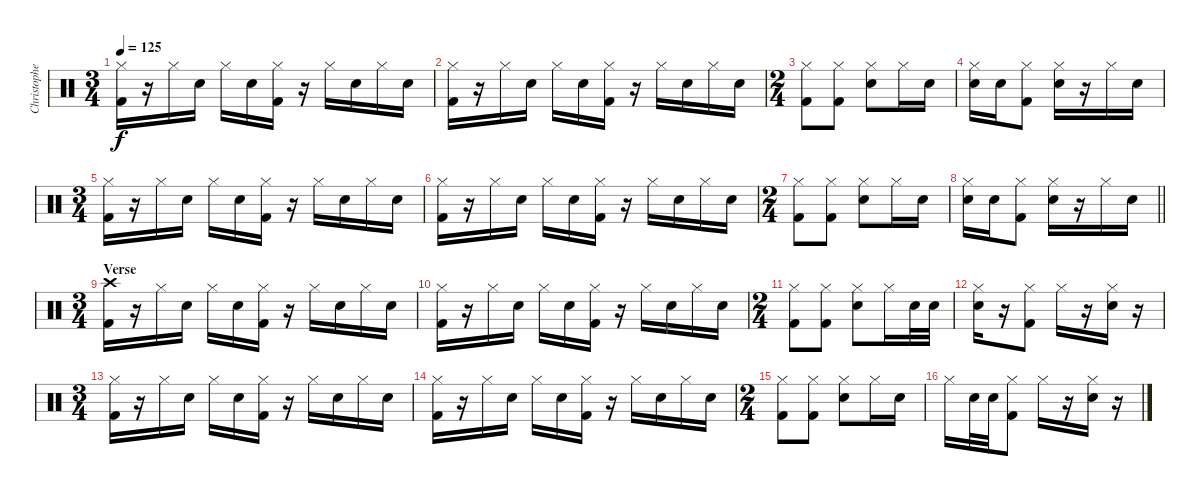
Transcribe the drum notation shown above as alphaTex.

\track ("Christopher - Drums" "Christophe") {instrument percussion}
\staff {score}
\articulation defaults
\ts (3 4)
\tempo 125
\clef neutral
\ks c
("Hi-Hat (closed)" "Kick (hit) 2").16{dy f} r.16 "Hi-Hat (closed)".16 "Electric Snare (hit)".16 "Hi-Hat (closed)".16 "Electric Snare (hit)".16 ("Hi-Hat (closed)" "Kick (hit) 2").16 r.16 "Hi-Hat (closed)".16 "Electric Snare (hit)".16 "Hi-Hat (closed)".16 "Electric Snare (hit)".16 |
("Hi-Hat (closed)" "Kick (hit) 2").16 r.16 "Hi-Hat (closed)".16 "Electric Snare (hit)".16 "Hi-Hat (closed)".16 "Electric Snare (hit)".16 ("Hi-Hat (closed)" "Kick (hit) 2").16 r.16 "Hi-Hat (closed)".16 "Electric Snare (hit)".16 "Hi-Hat (closed)".16 "Electric Snare (hit)".16 |
\ts (2 4)
("Hi-Hat (closed)" "Kick (hit) 2").8 ("Hi-Hat (closed)" "Kick (hit) 2").8 ("Hi-Hat (closed)" "Electric Snare (hit)").8 "Hi-Hat (closed)".16 "Electric Snare (hit)".16 |
("Hi-Hat (closed)" "Electric Snare (hit)").16 "Electric Snare (hit)".16 ("Hi-Hat (closed)" "Kick (hit) 2").8 ("Hi-Hat (closed)" "Electric Snare (hit)").16 r.16 "Hi-Hat (closed)".16 "Electric Snare (hit)".16 |
\ts (3 4)
("Hi-Hat (closed)" "Kick (hit) 2").16 r.16 "Hi-Hat (closed)".16 "Electric Snare (hit)".16 "Hi-Hat (closed)".16 "Electric Snare (hit)".16 ("Hi-Hat (closed)" "Kick (hit) 2").16 r.16 "Hi-Hat (closed)".16 "Electric Snare (hit)".16 "Hi-Hat (closed)".16 "Electric Snare (hit)".16 |
("Hi-Hat (closed)" "Kick (hit) 2").16 r.16 "Hi-Hat (closed)".16 "Electric Snare (hit)".16 "Hi-Hat (closed)".16 "Electric Snare (hit)".16 ("Hi-Hat (closed)" "Kick (hit) 2").16 r.16 "Hi-Hat (closed)".16 "Electric Snare (hit)".16 "Hi-Hat (closed)".16 "Electric Snare (hit)".16 |
\ts (2 4)
("Hi-Hat (closed)" "Kick (hit) 2").8 ("Hi-Hat (closed)" "Kick (hit) 2").8 ("Hi-Hat (closed)" "Electric Snare (hit)").8 "Hi-Hat (closed)".16 "Electric Snare (hit)".16 |
\barLineRight lightlight
("Hi-Hat (closed)" "Electric Snare (hit)").16 "Electric Snare (hit)".16 ("Hi-Hat (closed)" "Kick (hit) 2").8 ("Hi-Hat (closed)" "Electric Snare (hit)").16 r.16 "Hi-Hat (closed)".16 "Electric Snare (hit)".16 |
\ts (3 4)
\section ("" "Verse")
("Crash high (hit)" "Kick (hit) 2").16 r.16 "Hi-Hat (closed)".16 "Electric Snare (hit)".16 "Hi-Hat (closed)".16 "Electric Snare (hit)".16 ("Hi-Hat (closed)" "Kick (hit) 2").16 r.16 "Hi-Hat (closed)".16 "Electric Snare (hit)".16 "Hi-Hat (closed)".16 "Electric Snare (hit)".16 |
("Hi-Hat (closed)" "Kick (hit) 2").16 r.16 "Hi-Hat (closed)".16 "Electric Snare (hit)".16 "Hi-Hat (closed)".16 "Electric Snare (hit)".16 ("Hi-Hat (closed)" "Kick (hit) 2").16 r.16 "Hi-Hat (closed)".16 "Electric Snare (hit)".16 "Hi-Hat (closed)".16 "Electric Snare (hit)".16 |
\ts (2 4)
("Hi-Hat (closed)" "Kick (hit) 2").8 ("Hi-Hat (closed)" "Kick (hit) 2").8 ("Hi-Hat (closed)" "Electric Snare (hit)").8 "Hi-Hat (closed)".16 "Electric Snare (hit)".32 "Electric Snare (hit)".32 |
("Hi-Hat (closed)" "Electric Snare (hit)").16 r.16 ("Hi-Hat (closed)" "Kick (hit) 2").8 "Hi-Hat (closed)".16 r.16 ("Hi-Hat (closed)" "Electric Snare (hit)").16 r.16 |
\ts (3 4)
("Hi-Hat (closed)" "Kick (hit) 2").16 r.16 "Hi-Hat (closed)".16 "Electric Snare (hit)".16 "Hi-Hat (closed)".16 "Electric Snare (hit)".16 ("Hi-Hat (closed)" "Kick (hit) 2").16 r.16 "Hi-Hat (closed)".16 "Electric Snare (hit)".16 "Hi-Hat (closed)".16 "Electric Snare (hit)".16 |
("Hi-Hat (closed)" "Kick (hit) 2").16 r.16 "Hi-Hat (closed)".16 "Electric Snare (hit)".16 "Hi-Hat (closed)".16 "Electric Snare (hit)".16 ("Hi-Hat (closed)" "Kick (hit) 2").16 r.16 "Hi-Hat (closed)".16 "Electric Snare (hit)".16 "Hi-Hat (closed)".16 "Electric Snare (hit)".16 |
\ts (2 4)
("Hi-Hat (closed)" "Kick (hit) 2").8 ("Hi-Hat (closed)" "Kick (hit) 2").8 ("Hi-Hat (closed)" "Electric Snare (hit)").8 "Hi-Hat (closed)".16 "Electric Snare (hit)".16 |
"Hi-Hat (closed)".16 "Electric Snare (hit)".32 "Electric Snare (hit)".32 ("Hi-Hat (closed)" "Kick (hit) 2").8 "Hi-Hat (closed)".16 r.16 ("Hi-Hat (closed)" "Electric Snare (hit)").16 r.16
